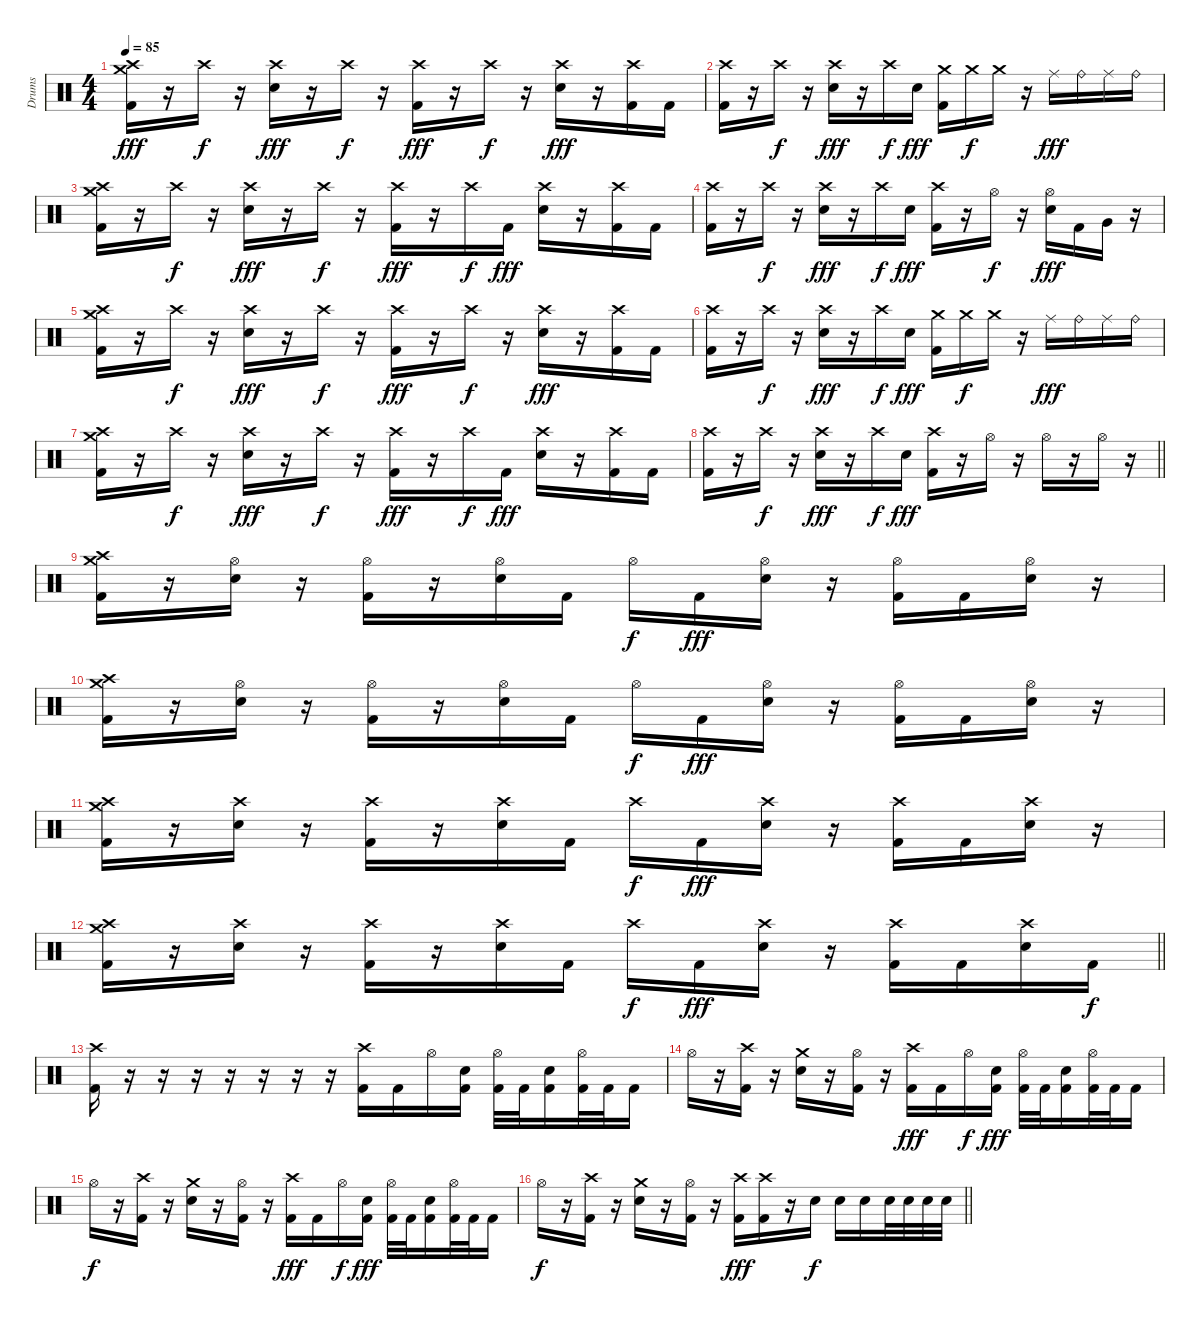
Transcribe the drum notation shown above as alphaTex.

\track ("Drums" "Drums") {instrument percussion}
\staff {score}
\articulation defaults
\ts (4 4)
\section ("" "")
\tempo 85
\clef neutral
\ks c
("Crash high (hit)" "Crash medium (hit)" "Kick (hit) 2").16{dy fff} r.16 "Crash high (hit)".16{dy f} r.16 ("Crash high (hit)" "Electric Snare (hit)").16{dy fff} r.16 "Crash high (hit)".16{dy f} r.16 ("Crash high (hit)" "Kick (hit) 2").16{dy fff} r.16 "Crash high (hit)".16{dy f} r.16 ("Crash high (hit)" "Electric Snare (hit)").16{dy fff} r.16 ("Crash high (hit)" "Kick (hit) 2").16 "Kick (hit) 2".16 |
("Crash high (hit)" "Kick (hit) 2").16 r.16 "Crash high (hit)".16{dy f} r.16 ("Crash high (hit)" "Electric Snare (hit)").16{dy fff} r.16 "Crash high (hit)".16{dy f} "Electric Snare (hit)".16{dy fff} ("Crash medium (hit)" "Kick (hit) 2").16 "Crash medium (hit)".16{dy f} "Crash medium (hit)".16 r.16 "Ride (middle)".16{dy fff} "Ride (bell)".16 "Ride (middle)".16 "Ride (bell)".16 |
("Crash high (hit)" "Crash medium (hit)" "Kick (hit) 2").16 r.16 "Crash high (hit)".16{dy f} r.16 ("Crash high (hit)" "Electric Snare (hit)").16{dy fff} r.16 "Crash high (hit)".16{dy f} r.16 ("Crash high (hit)" "Kick (hit) 2").16{dy fff} r.16 "Crash high (hit)".16{dy f} "Kick (hit) 2".16{dy fff} ("Crash high (hit)" "Electric Snare (hit)").16 r.16 ("Crash high (hit)" "Kick (hit) 2").16 "Kick (hit) 2".16 |
("Crash high (hit)" "Kick (hit) 2").16 r.16 "Crash high (hit)".16{dy f} r.16 ("Crash high (hit)" "Electric Snare (hit)").16{dy fff} r.16 "Crash high (hit)".16{dy f} "Electric Snare (hit)".16{dy fff} ("Crash high (hit)" "Kick (hit) 2").16 r.16 "Hi-Hat (open)".16{dy f} r.16 ("Hi-Hat (open)" "Electric Snare (hit)").16{dy fff} "Kick (hit) 2".16 "Very Low Tom (hit)".16 r.16 |
("Crash high (hit)" "Crash medium (hit)" "Kick (hit) 2").16 r.16 "Crash high (hit)".16{dy f} r.16 ("Crash high (hit)" "Electric Snare (hit)").16{dy fff} r.16 "Crash high (hit)".16{dy f} r.16 ("Crash high (hit)" "Kick (hit) 2").16{dy fff} r.16 "Crash high (hit)".16{dy f} r.16 ("Crash high (hit)" "Electric Snare (hit)").16{dy fff} r.16 ("Crash high (hit)" "Kick (hit) 2").16 "Kick (hit) 2".16 |
("Crash high (hit)" "Kick (hit) 2").16 r.16 "Crash high (hit)".16{dy f} r.16 ("Crash high (hit)" "Electric Snare (hit)").16{dy fff} r.16 "Crash high (hit)".16{dy f} "Electric Snare (hit)".16{dy fff} ("Crash medium (hit)" "Kick (hit) 2").16 "Crash medium (hit)".16{dy f} "Crash medium (hit)".16 r.16 "Ride (middle)".16{dy fff} "Ride (bell)".16 "Ride (middle)".16 "Ride (bell)".16 |
("Crash high (hit)" "Crash medium (hit)" "Kick (hit) 2").16 r.16 "Crash high (hit)".16{dy f} r.16 ("Crash high (hit)" "Electric Snare (hit)").16{dy fff} r.16 "Crash high (hit)".16{dy f} r.16 ("Crash high (hit)" "Kick (hit) 2").16{dy fff} r.16 "Crash high (hit)".16{dy f} "Kick (hit) 2".16{dy fff} ("Crash high (hit)" "Electric Snare (hit)").16 r.16 ("Crash high (hit)" "Kick (hit) 2").16 "Kick (hit) 2".16 |
\barLineRight lightlight
("Crash high (hit)" "Kick (hit) 2").16 r.16 "Crash high (hit)".16{dy f} r.16 ("Crash high (hit)" "Electric Snare (hit)").16{dy fff} r.16 "Crash high (hit)".16{dy f} "Electric Snare (hit)".16{dy fff} ("Crash high (hit)" "Kick (hit) 2").16 r.16 "Hi-Hat (open)".16 r.16 "Hi-Hat (open)".16 r.16 "Hi-Hat (open)".16 r.16 |
\section ("" "")
("Crash high (hit)" "Crash medium (hit)" "Kick (hit) 2").16 r.16 ("Hi-Hat (open)" "Electric Snare (hit)").16 r.16 ("Hi-Hat (open)" "Kick (hit) 2").16 r.16 ("Hi-Hat (open)" "Electric Snare (hit)").16 "Kick (hit) 2".16 "Hi-Hat (open)".16{dy f} "Kick (hit) 2".16{dy fff} ("Hi-Hat (open)" "Electric Snare (hit)").16 r.16 ("Hi-Hat (open)" "Kick (hit) 2").16 "Kick (hit) 2".16 ("Hi-Hat (open)" "Electric Snare (hit)").16 r.16 |
("Crash high (hit)" "Crash medium (hit)" "Kick (hit) 2").16 r.16 ("Hi-Hat (open)" "Electric Snare (hit)").16 r.16 ("Hi-Hat (open)" "Kick (hit) 2").16 r.16 ("Hi-Hat (open)" "Electric Snare (hit)").16 "Kick (hit) 2".16 "Hi-Hat (open)".16{dy f} "Kick (hit) 2".16{dy fff} ("Hi-Hat (open)" "Electric Snare (hit)").16 r.16 ("Hi-Hat (open)" "Kick (hit) 2").16 "Kick (hit) 2".16 ("Hi-Hat (open)" "Electric Snare (hit)").16 r.16 |
("Crash high (hit)" "Crash medium (hit)" "Kick (hit) 2").16 r.16 ("Crash high (hit)" "Electric Snare (hit)").16 r.16 ("Crash high (hit)" "Kick (hit) 2").16 r.16 ("Crash high (hit)" "Electric Snare (hit)").16 "Kick (hit) 2".16 "Crash high (hit)".16{dy f} "Kick (hit) 2".16{dy fff} ("Crash high (hit)" "Electric Snare (hit)").16 r.16 ("Crash high (hit)" "Kick (hit) 2").16 "Kick (hit) 2".16 ("Crash high (hit)" "Electric Snare (hit)").16 r.16 |
\barLineRight lightlight
("Crash high (hit)" "Crash medium (hit)" "Kick (hit) 2").16 r.16 ("Crash high (hit)" "Electric Snare (hit)").16 r.16 ("Crash high (hit)" "Kick (hit) 2").16 r.16 ("Crash high (hit)" "Electric Snare (hit)").16 "Kick (hit) 2".16 "Crash high (hit)".16{dy f} "Kick (hit) 2".16{dy fff} ("Crash high (hit)" "Electric Snare (hit)").16 r.16 ("Crash high (hit)" "Kick (hit) 2").16 "Kick (hit) 2".16 ("Crash high (hit)" "Electric Snare (hit)").16 "Kick (hit) 2".16{dy f} |
\section ("" "")
("Crash high (hit)" "Kick (hit) 2").16 r.16 r.16 r.16 r.16 r.16 r.16 r.16 ("Crash high (hit)" "Kick (hit) 2").16 "Kick (hit) 2".16 "Hi-Hat (open)".16 ("Electric Snare (hit)" "Kick (hit) 2").16 ("Hi-Hat (open)" "Kick (hit) 2").32 "Kick (hit) 2".32 ("Electric Snare (hit)" "Kick (hit) 2").16 ("Hi-Hat (open)" "Kick (hit) 2").32 "Kick (hit) 2".32 "Kick (hit) 2".16 |
"Hi-Hat (open)".16 r.16 ("Crash high (hit)" "Kick (hit) 2").16 r.16 ("Crash medium (hit)" "Electric Snare (hit)").16 r.16 ("Hi-Hat (open)" "Kick (hit) 2").16 r.16 ("Crash high (hit)" "Kick (hit) 2").16{dy fff} "Kick (hit) 2".16 "Hi-Hat (open)".16{dy f} ("Electric Snare (hit)" "Kick (hit) 2").16{dy fff} ("Hi-Hat (open)" "Kick (hit) 2").32 "Kick (hit) 2".32 ("Electric Snare (hit)" "Kick (hit) 2").16 ("Hi-Hat (open)" "Kick (hit) 2").32 "Kick (hit) 2".32 "Kick (hit) 2".16 |
"Hi-Hat (open)".16{dy f} r.16 ("Crash high (hit)" "Kick (hit) 2").16 r.16 ("Crash medium (hit)" "Electric Snare (hit)").16 r.16 ("Hi-Hat (open)" "Kick (hit) 2").16 r.16 ("Crash high (hit)" "Kick (hit) 2").16{dy fff} "Kick (hit) 2".16 "Hi-Hat (open)".16{dy f} ("Electric Snare (hit)" "Kick (hit) 2").16{dy fff} ("Hi-Hat (open)" "Kick (hit) 2").32 "Kick (hit) 2".32 ("Electric Snare (hit)" "Kick (hit) 2").16 ("Hi-Hat (open)" "Kick (hit) 2").32 "Kick (hit) 2".32 "Kick (hit) 2".16 |
\barLineRight lightlight "Hi-Hat (open)".16{dy f}
r.16 ("Crash high (hit)" "Kick (hit) 2").16 r.16 ("Crash medium (hit)" "Electric Snare (hit)").16 r.16 ("Hi-Hat (open)" "Kick (hit) 2").16 r.16 ("Crash high (hit)" "Kick (hit) 2").16{dy fff} ("Crash high (hit)" "Kick (hit) 2").16 r.16{volume 0} "Electric Snare (hit)".16{dy f volume 16} "Electric Snare (hit)".16 "Electric Snare (hit)".16 "Electric Snare (hit)".32 "Electric Snare (hit)".32 "Electric Snare (hit)".32 "Electric Snare (hit)".32
